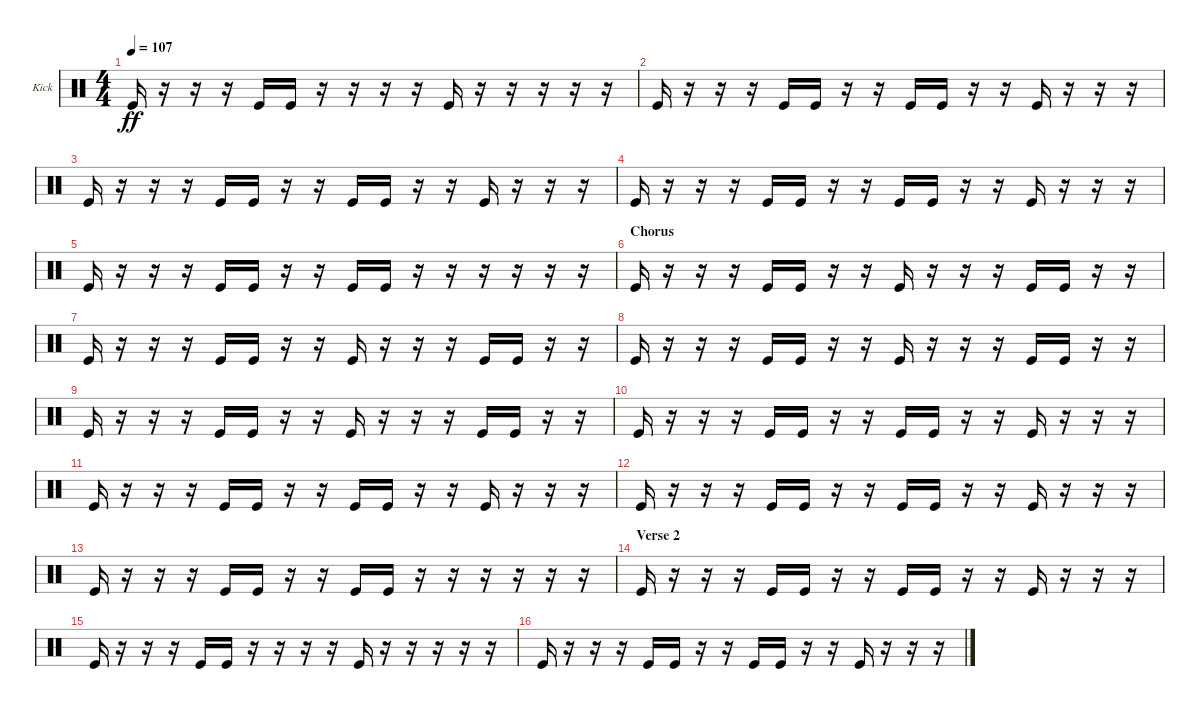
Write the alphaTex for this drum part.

\bracketExtendMode groupsimilarinstruments
\firstSystemTrackNameOrientation horizontal
\otherSystemsTrackNameOrientation horizontal
\track ("Kick" "Kick") {instrument percussion}
\staff {score}
\articulation defaults
\ts (4 4)
\tempo 107
\clef neutral
\ks c "Kick (hit)".16{dy ff}
r.16 r.16 r.16 "Kick (hit)".16 "Kick (hit)".16 r.16 r.16 r.16 r.16 "Kick (hit)".16 r.16 r.16 r.16 r.16 r.16 |
"Kick (hit)".16 r.16 r.16 r.16 "Kick (hit)".16 "Kick (hit)".16 r.16 r.16 "Kick (hit)".16 "Kick (hit)".16 r.16 r.16 "Kick (hit)".16 r.16 r.16 r.16 |
"Kick (hit)".16 r.16 r.16 r.16 "Kick (hit)".16 "Kick (hit)".16 r.16 r.16 "Kick (hit)".16 "Kick (hit)".16 r.16 r.16 "Kick (hit)".16 r.16 r.16 r.16 |
"Kick (hit)".16 r.16 r.16 r.16 "Kick (hit)".16 "Kick (hit)".16 r.16 r.16 "Kick (hit)".16 "Kick (hit)".16 r.16 r.16 "Kick (hit)".16 r.16 r.16 r.16 |
"Kick (hit)".16 r.16 r.16 r.16 "Kick (hit)".16 "Kick (hit)".16 r.16 r.16 "Kick (hit)".16 "Kick (hit)".16 r.16 r.16 r.16 r.16 r.16 r.16 |
\section ("" "Chorus")
"Kick (hit)".16 r.16 r.16 r.16 "Kick (hit)".16 "Kick (hit)".16 r.16 r.16 "Kick (hit)".16 r.16 r.16 r.16 "Kick (hit)".16 "Kick (hit)".16 r.16 r.16 |
"Kick (hit)".16 r.16 r.16 r.16 "Kick (hit)".16 "Kick (hit)".16 r.16 r.16 "Kick (hit)".16 r.16 r.16 r.16 "Kick (hit)".16 "Kick (hit)".16 r.16 r.16 |
"Kick (hit)".16 r.16 r.16 r.16 "Kick (hit)".16 "Kick (hit)".16 r.16 r.16 "Kick (hit)".16 r.16 r.16 r.16 "Kick (hit)".16 "Kick (hit)".16 r.16 r.16 |
"Kick (hit)".16 r.16 r.16 r.16 "Kick (hit)".16 "Kick (hit)".16 r.16 r.16 "Kick (hit)".16 r.16 r.16 r.16 "Kick (hit)".16 "Kick (hit)".16 r.16 r.16 |
"Kick (hit)".16 r.16 r.16 r.16 "Kick (hit)".16 "Kick (hit)".16 r.16 r.16 "Kick (hit)".16 "Kick (hit)".16 r.16 r.16 "Kick (hit)".16 r.16 r.16 r.16 |
"Kick (hit)".16 r.16 r.16 r.16 "Kick (hit)".16 "Kick (hit)".16 r.16 r.16 "Kick (hit)".16 "Kick (hit)".16 r.16 r.16 "Kick (hit)".16 r.16 r.16 r.16 |
"Kick (hit)".16 r.16 r.16 r.16 "Kick (hit)".16 "Kick (hit)".16 r.16 r.16 "Kick (hit)".16 "Kick (hit)".16 r.16 r.16 "Kick (hit)".16 r.16 r.16 r.16 |
"Kick (hit)".16 r.16 r.16 r.16 "Kick (hit)".16 "Kick (hit)".16 r.16 r.16 "Kick (hit)".16 "Kick (hit)".16 r.16 r.16 r.16 r.16 r.16 r.16 |
\section ("" "Verse 2")
"Kick (hit)".16 r.16 r.16 r.16 "Kick (hit)".16 "Kick (hit)".16 r.16 r.16 "Kick (hit)".16 "Kick (hit)".16 r.16 r.16 "Kick (hit)".16 r.16 r.16 r.16 |
"Kick (hit)".16 r.16 r.16 r.16 "Kick (hit)".16 "Kick (hit)".16 r.16 r.16 r.16 r.16 "Kick (hit)".16 r.16 r.16 r.16 r.16 r.16 |
"Kick (hit)".16 r.16 r.16 r.16 "Kick (hit)".16 "Kick (hit)".16 r.16 r.16 "Kick (hit)".16 "Kick (hit)".16 r.16 r.16 "Kick (hit)".16 r.16 r.16 r.16
